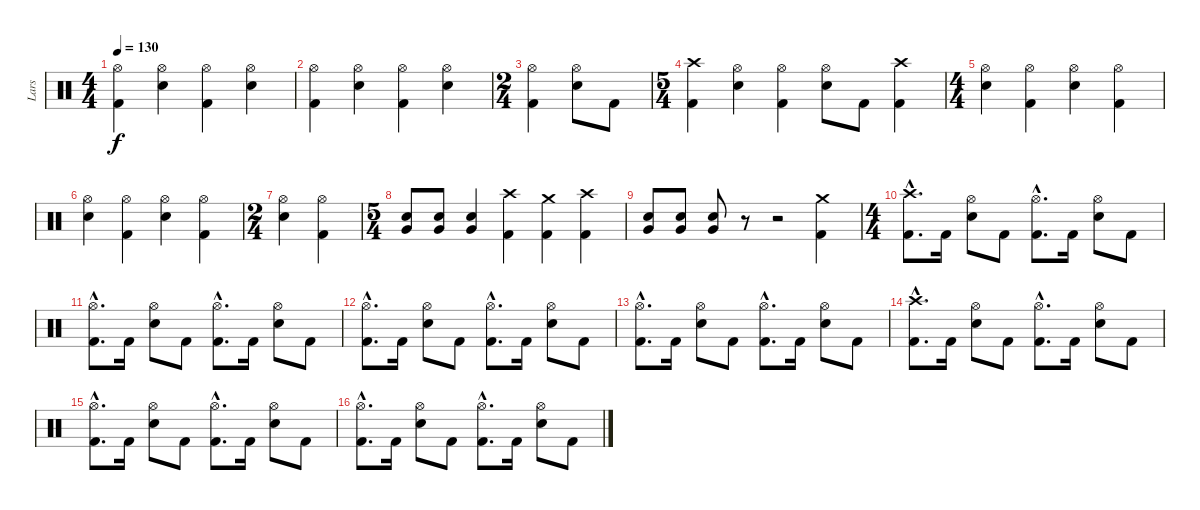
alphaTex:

\track ("Lars" "Lars") {instrument percussion}
\staff {score}
\articulation defaults
\ts (4 4)
\tempo 130
\clef neutral
\ks c
("Kick (hit) 2" "Hi-Hat (open)").4{dy f} ("Electric Snare (hit)" "Hi-Hat (open)").4 ("Kick (hit) 2" "Hi-Hat (open)").4 ("Electric Snare (hit)" "Hi-Hat (open)").4 |
("Kick (hit) 2" "Hi-Hat (open)").4 ("Electric Snare (hit)" "Hi-Hat (open)").4 ("Kick (hit) 2" "Hi-Hat (open)").4 ("Electric Snare (hit)" "Hi-Hat (open)").4 |
\ts (2 4)
("Kick (hit) 2" "Hi-Hat (open)").4 ("Electric Snare (hit)" "Hi-Hat (open)").8 "Kick (hit) 2".8 |
\ts (5 4)
("Kick (hit) 2" "Crash high (hit)").4 ("Electric Snare (hit)" "Hi-Hat (open)").4 ("Kick (hit) 2" "Hi-Hat (open)").4 ("Electric Snare (hit)" "Hi-Hat (open)").8 "Kick (hit) 2".8 ("Kick (hit) 2" "Crash high (hit)").4 |
\ts (4 4)
("Electric Snare (hit)" "Hi-Hat (open)").4 ("Kick (hit) 2" "Hi-Hat (open)").4 ("Electric Snare (hit)" "Hi-Hat (open)").4 ("Kick (hit) 2" "Hi-Hat (open)").4 |
("Electric Snare (hit)" "Hi-Hat (open)").4 ("Kick (hit) 2" "Hi-Hat (open)").4 ("Electric Snare (hit)" "Hi-Hat (open)").4 ("Kick (hit) 2" "Hi-Hat (open)").4 |
\ts (2 4)
("Electric Snare (hit)" "Hi-Hat (open)").4 ("Kick (hit) 2" "Hi-Hat (open)").4 |
\ts (5 4)
\section ("" "")
("Electric Snare (hit)" "Very Low Tom (hit)").8{bu 120} ("Electric Snare (hit)" "Very Low Tom (hit)").8{bu 120} ("Electric Snare (hit)" "Very Low Tom (hit)").4 ("Kick (hit) 2" "Crash high (hit)").4 ("Kick (hit) 2" "Crash medium (hit)").4 ("Kick (hit) 2" "Crash high (hit)").4 |
("Electric Snare (hit)" "Very Low Tom (hit)").8{bu 120} ("Electric Snare (hit)" "Very Low Tom (hit)").8{bu 120} ("Electric Snare (hit)" "Very Low Tom (hit)").8{bu 120} r.8 r.2 ("Kick (hit) 2" "Crash medium (hit)").4 |
\ts (4 4)
\section ("" "")
("Kick (hit) 2"{hac} "Crash high (hit)"{hac}).8{d} "Kick (hit) 2".16 ("Electric Snare (hit)" "Hi-Hat (open)").8 "Kick (hit) 2".8 ("Kick (hit) 2"{hac} "Hi-Hat (open)"{hac}).8{d} "Kick (hit) 2".16 ("Electric Snare (hit)" "Hi-Hat (open)").8 "Kick (hit) 2".8 |
("Kick (hit) 2"{hac} "Hi-Hat (open)"{hac}).8{d} "Kick (hit) 2".16 ("Electric Snare (hit)" "Hi-Hat (open)").8 "Kick (hit) 2".8 ("Kick (hit) 2"{hac} "Hi-Hat (open)"{hac}).8{d} "Kick (hit) 2".16 ("Electric Snare (hit)" "Hi-Hat (open)").8 "Kick (hit) 2".8 |
("Kick (hit) 2"{hac} "Hi-Hat (open)"{hac}).8{d} "Kick (hit) 2".16 ("Electric Snare (hit)" "Hi-Hat (open)").8 "Kick (hit) 2".8 ("Kick (hit) 2"{hac} "Hi-Hat (open)"{hac}).8{d} "Kick (hit) 2".16 ("Electric Snare (hit)" "Hi-Hat (open)").8 "Kick (hit) 2".8 |
("Kick (hit) 2"{hac} "Hi-Hat (open)"{hac}).8{d} "Kick (hit) 2".16 ("Electric Snare (hit)" "Hi-Hat (open)").8 "Kick (hit) 2".8 ("Kick (hit) 2"{hac} "Hi-Hat (open)"{hac}).8{d} "Kick (hit) 2".16 ("Electric Snare (hit)" "Hi-Hat (open)").8 "Kick (hit) 2".8 |
\section ("" "")
("Kick (hit) 2"{hac} "Crash high (hit)"{hac}).8{d} "Kick (hit) 2".16 ("Electric Snare (hit)" "Hi-Hat (open)").8 "Kick (hit) 2".8 ("Kick (hit) 2"{hac} "Hi-Hat (open)"{hac}).8{d} "Kick (hit) 2".16 ("Electric Snare (hit)" "Hi-Hat (open)").8 "Kick (hit) 2".8 |
("Kick (hit) 2"{hac} "Hi-Hat (open)"{hac}).8{d} "Kick (hit) 2".16 ("Electric Snare (hit)" "Hi-Hat (open)").8 "Kick (hit) 2".8 ("Kick (hit) 2"{hac} "Hi-Hat (open)"{hac}).8{d} "Kick (hit) 2".16 ("Electric Snare (hit)" "Hi-Hat (open)").8 "Kick (hit) 2".8 |
("Kick (hit) 2"{hac} "Hi-Hat (open)"{hac}).8{d} "Kick (hit) 2".16 ("Electric Snare (hit)" "Hi-Hat (open)").8 "Kick (hit) 2".8 ("Kick (hit) 2"{hac} "Hi-Hat (open)"{hac}).8{d} "Kick (hit) 2".16 ("Electric Snare (hit)" "Hi-Hat (open)").8 "Kick (hit) 2".8
